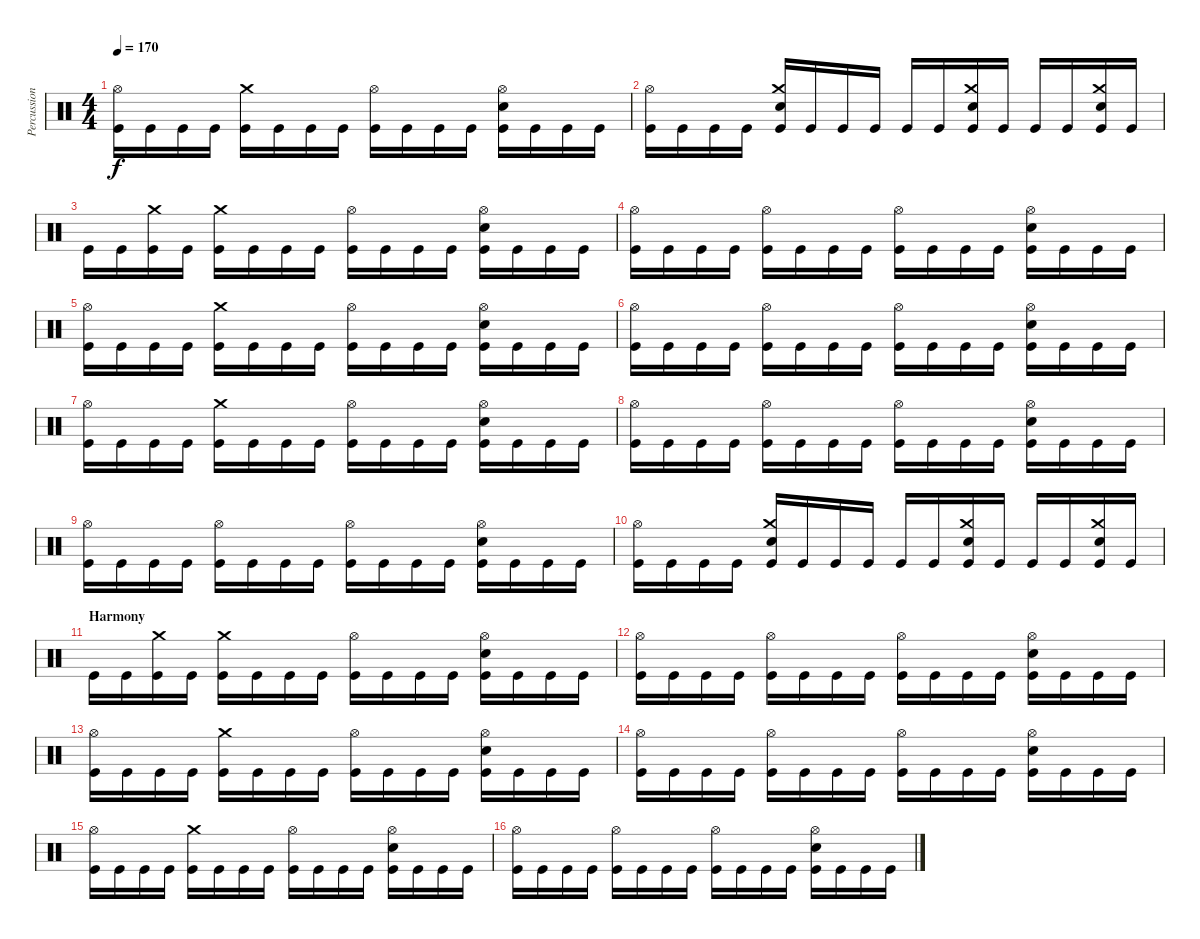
\track ("Percussion" "Percussion") {instrument percussion}
\staff {score}
\articulation defaults
\ts (4 4)
\tempo 170
\clef neutral
\ks c
("Hi-Hat (open)" "Kick (hit)").16{dy f} "Kick (hit)".16 "Kick (hit)".16 "Kick (hit)".16 ("Crash medium (hit)" "Kick (hit)").16 "Kick (hit)".16 "Kick (hit)".16 "Kick (hit)".16 ("Hi-Hat (open)" "Kick (hit)").16 "Kick (hit)".16 "Kick (hit)".16 "Kick (hit)".16 ("Hi-Hat (open)" "Snare (hit) 2" "Kick (hit)").16 "Kick (hit)".16 "Kick (hit)".16 "Kick (hit)".16 |
("Hi-Hat (open)" "Kick (hit)").16 "Kick (hit)".16 "Kick (hit)".16 "Kick (hit)".16 ("Crash medium (hit)" "Snare (hit) 2" "Kick (hit)").16 "Kick (hit)".16 "Kick (hit)".16 "Kick (hit)".16 "Kick (hit)".16 "Kick (hit)".16 ("Crash medium (hit)" "Snare (hit) 2" "Kick (hit)").16 "Kick (hit)".16 "Kick (hit)".16 "Kick (hit)".16 ("Crash medium (hit)" "Snare (hit) 2" "Kick (hit)").16 "Kick (hit)".16 |
"Kick (hit)".16 "Kick (hit)".16 ("Crash medium (hit)" "Kick (hit)").16 "Kick (hit)".16 ("Crash medium (hit)" "Kick (hit)").16 "Kick (hit)".16 "Kick (hit)".16 "Kick (hit)".16 ("Hi-Hat (open)" "Kick (hit)").16 "Kick (hit)".16 "Kick (hit)".16 "Kick (hit)".16 ("Hi-Hat (open)" "Snare (hit) 2" "Kick (hit)").16 "Kick (hit)".16 "Kick (hit)".16 "Kick (hit)".16 |
("Hi-Hat (open)" "Kick (hit)").16 "Kick (hit)".16 "Kick (hit)".16 "Kick (hit)".16 ("Hi-Hat (open)" "Kick (hit)").16 "Kick (hit)".16 "Kick (hit)".16 "Kick (hit)".16 ("Hi-Hat (open)" "Kick (hit)").16 "Kick (hit)".16 "Kick (hit)".16 "Kick (hit)".16 ("Hi-Hat (open)" "Snare (hit) 2" "Kick (hit)").16 "Kick (hit)".16 "Kick (hit)".16 "Kick (hit)".16 |
("Hi-Hat (open)" "Kick (hit)").16 "Kick (hit)".16 "Kick (hit)".16 "Kick (hit)".16 ("Crash medium (hit)" "Kick (hit)").16 "Kick (hit)".16 "Kick (hit)".16 "Kick (hit)".16 ("Hi-Hat (open)" "Kick (hit)").16 "Kick (hit)".16 "Kick (hit)".16 "Kick (hit)".16 ("Hi-Hat (open)" "Snare (hit) 2" "Kick (hit)").16 "Kick (hit)".16 "Kick (hit)".16 "Kick (hit)".16 |
("Hi-Hat (open)" "Kick (hit)").16 "Kick (hit)".16 "Kick (hit)".16 "Kick (hit)".16 ("Hi-Hat (open)" "Kick (hit)").16 "Kick (hit)".16 "Kick (hit)".16 "Kick (hit)".16 ("Hi-Hat (open)" "Kick (hit)").16 "Kick (hit)".16 "Kick (hit)".16 "Kick (hit)".16 ("Hi-Hat (open)" "Snare (hit) 2" "Kick (hit)").16 "Kick (hit)".16 "Kick (hit)".16 "Kick (hit)".16 |
("Hi-Hat (open)" "Kick (hit)").16 "Kick (hit)".16 "Kick (hit)".16 "Kick (hit)".16 ("Crash medium (hit)" "Kick (hit)").16 "Kick (hit)".16 "Kick (hit)".16 "Kick (hit)".16 ("Hi-Hat (open)" "Kick (hit)").16 "Kick (hit)".16 "Kick (hit)".16 "Kick (hit)".16 ("Hi-Hat (open)" "Snare (hit) 2" "Kick (hit)").16 "Kick (hit)".16 "Kick (hit)".16 "Kick (hit)".16 |
("Hi-Hat (open)" "Kick (hit)").16 "Kick (hit)".16 "Kick (hit)".16 "Kick (hit)".16 ("Hi-Hat (open)" "Kick (hit)").16 "Kick (hit)".16 "Kick (hit)".16 "Kick (hit)".16 ("Hi-Hat (open)" "Kick (hit)").16 "Kick (hit)".16 "Kick (hit)".16 "Kick (hit)".16 ("Hi-Hat (open)" "Snare (hit) 2" "Kick (hit)").16 "Kick (hit)".16 "Kick (hit)".16 "Kick (hit)".16 |
("Hi-Hat (open)" "Kick (hit)").16 "Kick (hit)".16 "Kick (hit)".16 "Kick (hit)".16 ("Hi-Hat (open)" "Kick (hit)").16 "Kick (hit)".16 "Kick (hit)".16 "Kick (hit)".16 ("Hi-Hat (open)" "Kick (hit)").16 "Kick (hit)".16 "Kick (hit)".16 "Kick (hit)".16 ("Hi-Hat (open)" "Snare (hit) 2" "Kick (hit)").16 "Kick (hit)".16 "Kick (hit)".16 "Kick (hit)".16 |
("Hi-Hat (open)" "Kick (hit)").16 "Kick (hit)".16 "Kick (hit)".16 "Kick (hit)".16 ("Crash medium (hit)" "Snare (hit) 2" "Kick (hit)").16 "Kick (hit)".16 "Kick (hit)".16 "Kick (hit)".16 "Kick (hit)".16 "Kick (hit)".16 ("Crash medium (hit)" "Snare (hit) 2" "Kick (hit)").16 "Kick (hit)".16 "Kick (hit)".16 "Kick (hit)".16 ("Crash medium (hit)" "Snare (hit) 2" "Kick (hit)").16 "Kick (hit)".16 |
\section ("" "Harmony")
"Kick (hit)".16 "Kick (hit)".16 ("Crash medium (hit)" "Kick (hit)").16 "Kick (hit)".16 ("Crash medium (hit)" "Kick (hit)").16 "Kick (hit)".16 "Kick (hit)".16 "Kick (hit)".16 ("Hi-Hat (open)" "Kick (hit)").16 "Kick (hit)".16 "Kick (hit)".16 "Kick (hit)".16 ("Hi-Hat (open)" "Snare (hit) 2" "Kick (hit)").16 "Kick (hit)".16 "Kick (hit)".16 "Kick (hit)".16 |
("Hi-Hat (open)" "Kick (hit)").16 "Kick (hit)".16 "Kick (hit)".16 "Kick (hit)".16 ("Hi-Hat (open)" "Kick (hit)").16 "Kick (hit)".16 "Kick (hit)".16 "Kick (hit)".16 ("Hi-Hat (open)" "Kick (hit)").16 "Kick (hit)".16 "Kick (hit)".16 "Kick (hit)".16 ("Hi-Hat (open)" "Snare (hit) 2" "Kick (hit)").16 "Kick (hit)".16 "Kick (hit)".16 "Kick (hit)".16 |
("Hi-Hat (open)" "Kick (hit)").16 "Kick (hit)".16 "Kick (hit)".16 "Kick (hit)".16 ("Crash medium (hit)" "Kick (hit)").16 "Kick (hit)".16 "Kick (hit)".16 "Kick (hit)".16 ("Hi-Hat (open)" "Kick (hit)").16 "Kick (hit)".16 "Kick (hit)".16 "Kick (hit)".16 ("Hi-Hat (open)" "Snare (hit) 2" "Kick (hit)").16 "Kick (hit)".16 "Kick (hit)".16 "Kick (hit)".16 |
("Hi-Hat (open)" "Kick (hit)").16 "Kick (hit)".16 "Kick (hit)".16 "Kick (hit)".16 ("Hi-Hat (open)" "Kick (hit)").16 "Kick (hit)".16 "Kick (hit)".16 "Kick (hit)".16 ("Hi-Hat (open)" "Kick (hit)").16 "Kick (hit)".16 "Kick (hit)".16 "Kick (hit)".16 ("Hi-Hat (open)" "Snare (hit) 2" "Kick (hit)").16 "Kick (hit)".16 "Kick (hit)".16 "Kick (hit)".16 |
("Hi-Hat (open)" "Kick (hit)").16 "Kick (hit)".16 "Kick (hit)".16 "Kick (hit)".16 ("Crash medium (hit)" "Kick (hit)").16 "Kick (hit)".16 "Kick (hit)".16 "Kick (hit)".16 ("Hi-Hat (open)" "Kick (hit)").16 "Kick (hit)".16 "Kick (hit)".16 "Kick (hit)".16 ("Hi-Hat (open)" "Snare (hit) 2" "Kick (hit)").16 "Kick (hit)".16 "Kick (hit)".16 "Kick (hit)".16 |
("Hi-Hat (open)" "Kick (hit)").16 "Kick (hit)".16 "Kick (hit)".16 "Kick (hit)".16 ("Hi-Hat (open)" "Kick (hit)").16 "Kick (hit)".16 "Kick (hit)".16 "Kick (hit)".16 ("Hi-Hat (open)" "Kick (hit)").16 "Kick (hit)".16 "Kick (hit)".16 "Kick (hit)".16 ("Hi-Hat (open)" "Snare (hit) 2" "Kick (hit)").16 "Kick (hit)".16 "Kick (hit)".16 "Kick (hit)".16
